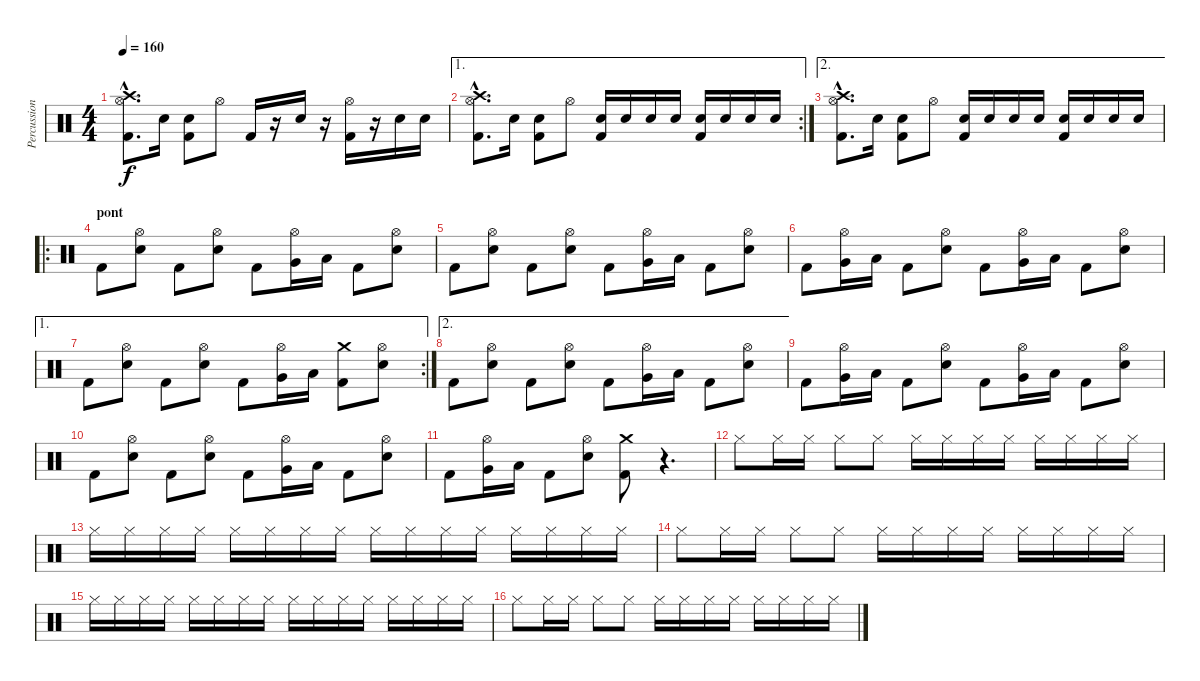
\track ("Percussions" "Percussion") {instrument percussion}
\staff {score}
\articulation defaults
\ts (4 4)
\tempo 160
\clef neutral
\ks c
("Kick (hit) 2"{hac} "Hi-Hat (open)"{hac} "Crash high (hit)"{hac}).8{d dy f} "Electric Snare (hit)".16 ("Kick (hit) 2" "Electric Snare (hit)").8 "Hi-Hat (open)".8 "Kick (hit) 2".16 r.16 "Electric Snare (hit)".16 r.16 ("Kick (hit) 2" "Hi-Hat (open)").16 r.16 "Electric Snare (hit)".16 "Electric Snare (hit)".16 |
\ae 1
\rc 2
("Kick (hit) 2"{hac} "Hi-Hat (open)"{hac} "Crash high (hit)"{hac}).8{d} "Electric Snare (hit)".16 ("Kick (hit) 2" "Electric Snare (hit)").8 "Hi-Hat (open)".8 ("Kick (hit) 2" "Electric Snare (hit)").16 "Electric Snare (hit)".16 "Electric Snare (hit)".16 "Electric Snare (hit)".16 ("Kick (hit) 2" "Electric Snare (hit)").16 "Electric Snare (hit)".16 "Electric Snare (hit)".16 "Electric Snare (hit)".16 |
\ae 2
("Kick (hit) 2"{hac} "Hi-Hat (open)"{hac} "Crash high (hit)"{hac}).8{d} "Electric Snare (hit)".16 ("Kick (hit) 2" "Electric Snare (hit)").8 "Hi-Hat (open)".8 ("Kick (hit) 2" "Electric Snare (hit)").16 "Electric Snare (hit)".16 "Electric Snare (hit)".16 "Electric Snare (hit)".16 ("Kick (hit) 2" "Electric Snare (hit)").16 "Electric Snare (hit)".16 "Electric Snare (hit)".16 "Electric Snare (hit)".16 |
\ro
\section ("" "pont")
"Kick (hit) 2".8 ("Electric Snare (hit)" "Hi-Hat (open)").8 "Kick (hit) 2".8 ("Electric Snare (hit)" "Hi-Hat (open)").8 "Kick (hit) 2".8 ("Very Low Tom (hit)" "Hi-Hat (open)").16 "Low Floor Tom (hit)".16 "Kick (hit) 2".8 ("Electric Snare (hit)" "Hi-Hat (open)").8 |
"Kick (hit) 2".8 ("Electric Snare (hit)" "Hi-Hat (open)").8 "Kick (hit) 2".8 ("Electric Snare (hit)" "Hi-Hat (open)").8 "Kick (hit) 2".8 ("Very Low Tom (hit)" "Hi-Hat (open)").16 "Low Floor Tom (hit)".16 "Kick (hit) 2".8 ("Electric Snare (hit)" "Hi-Hat (open)").8 |
"Kick (hit) 2".8 ("Very Low Tom (hit)" "Hi-Hat (open)").16 "Low Floor Tom (hit)".16 "Kick (hit) 2".8 ("Electric Snare (hit)" "Hi-Hat (open)").8 "Kick (hit) 2".8 ("Very Low Tom (hit)" "Hi-Hat (open)").16 "Low Floor Tom (hit)".16 "Kick (hit) 2".8 ("Electric Snare (hit)" "Hi-Hat (open)").8 |
\ae 1
\rc 2 "Kick (hit) 2".8
("Electric Snare (hit)" "Hi-Hat (open)").8 "Kick (hit) 2".8 ("Electric Snare (hit)" "Hi-Hat (open)").8 "Kick (hit) 2".8 ("Very Low Tom (hit)" "Hi-Hat (open)").16 "Low Floor Tom (hit)".16 ("Kick (hit) 2" "Crash medium (hit)").8 ("Electric Snare (hit)" "Hi-Hat (open)").8 |
\ae 2 "Kick (hit) 2".8
("Electric Snare (hit)" "Hi-Hat (open)").8 "Kick (hit) 2".8 ("Electric Snare (hit)" "Hi-Hat (open)").8 "Kick (hit) 2".8 ("Very Low Tom (hit)" "Hi-Hat (open)").16 "Low Floor Tom (hit)".16 "Kick (hit) 2".8 ("Electric Snare (hit)" "Hi-Hat (open)").8 |
"Kick (hit) 2".8 ("Very Low Tom (hit)" "Hi-Hat (open)").16 "Low Floor Tom (hit)".16 "Kick (hit) 2".8 ("Electric Snare (hit)" "Hi-Hat (open)").8 "Kick (hit) 2".8 ("Very Low Tom (hit)" "Hi-Hat (open)").16 "Low Floor Tom (hit)".16 "Kick (hit) 2".8 ("Electric Snare (hit)" "Hi-Hat (open)").8 |
"Kick (hit) 2".8 ("Electric Snare (hit)" "Hi-Hat (open)").8 "Kick (hit) 2".8 ("Electric Snare (hit)" "Hi-Hat (open)").8 "Kick (hit) 2".8 ("Very Low Tom (hit)" "Hi-Hat (open)").16 "Low Floor Tom (hit)".16 "Kick (hit) 2".8 ("Electric Snare (hit)" "Hi-Hat (open)").8 |
"Kick (hit) 2".8 ("Very Low Tom (hit)" "Hi-Hat (open)").16 "Low Floor Tom (hit)".16 "Kick (hit) 2".8 ("Electric Snare (hit)" "Hi-Hat (open)").8 ("Kick (hit) 2" "Crash medium (hit)").8 r.4{d} |
"Hi-Hat (closed)".8{volume 3} "Hi-Hat (closed)".16 "Hi-Hat (closed)".16 "Hi-Hat (closed)".8 "Hi-Hat (closed)".8 "Hi-Hat (closed)".16 "Hi-Hat (closed)".16 "Hi-Hat (closed)".16 "Hi-Hat (closed)".16 "Hi-Hat (closed)".16 "Hi-Hat (closed)".16 "Hi-Hat (closed)".16 "Hi-Hat (closed)".16 |
"Hi-Hat (closed)".16{volume 5} "Hi-Hat (closed)".16 "Hi-Hat (closed)".16 "Hi-Hat (closed)".16 "Hi-Hat (closed)".16 "Hi-Hat (closed)".16 "Hi-Hat (closed)".16 "Hi-Hat (closed)".16 "Hi-Hat (closed)".16 "Hi-Hat (closed)".16 "Hi-Hat (closed)".16 "Hi-Hat (closed)".16 "Hi-Hat (closed)".16 "Hi-Hat (closed)".16 "Hi-Hat (closed)".16 "Hi-Hat (closed)".16 |
"Hi-Hat (closed)".8{volume 6} "Hi-Hat (closed)".16 "Hi-Hat (closed)".16 "Hi-Hat (closed)".8 "Hi-Hat (closed)".8 "Hi-Hat (closed)".16 "Hi-Hat (closed)".16 "Hi-Hat (closed)".16 "Hi-Hat (closed)".16 "Hi-Hat (closed)".16 "Hi-Hat (closed)".16 "Hi-Hat (closed)".16 "Hi-Hat (closed)".16 |
"Hi-Hat (closed)".16{volume 7} "Hi-Hat (closed)".16 "Hi-Hat (closed)".16 "Hi-Hat (closed)".16 "Hi-Hat (closed)".16 "Hi-Hat (closed)".16 "Hi-Hat (closed)".16 "Hi-Hat (closed)".16 "Hi-Hat (closed)".16 "Hi-Hat (closed)".16 "Hi-Hat (closed)".16 "Hi-Hat (closed)".16 "Hi-Hat (closed)".16 "Hi-Hat (closed)".16 "Hi-Hat (closed)".16 "Hi-Hat (closed)".16 |
"Hi-Hat (closed)".8{volume 9} "Hi-Hat (closed)".16 "Hi-Hat (closed)".16 "Hi-Hat (closed)".8 "Hi-Hat (closed)".8 "Hi-Hat (closed)".16 "Hi-Hat (closed)".16 "Hi-Hat (closed)".16 "Hi-Hat (closed)".16 "Hi-Hat (closed)".16 "Hi-Hat (closed)".16 "Hi-Hat (closed)".16 "Hi-Hat (closed)".16
